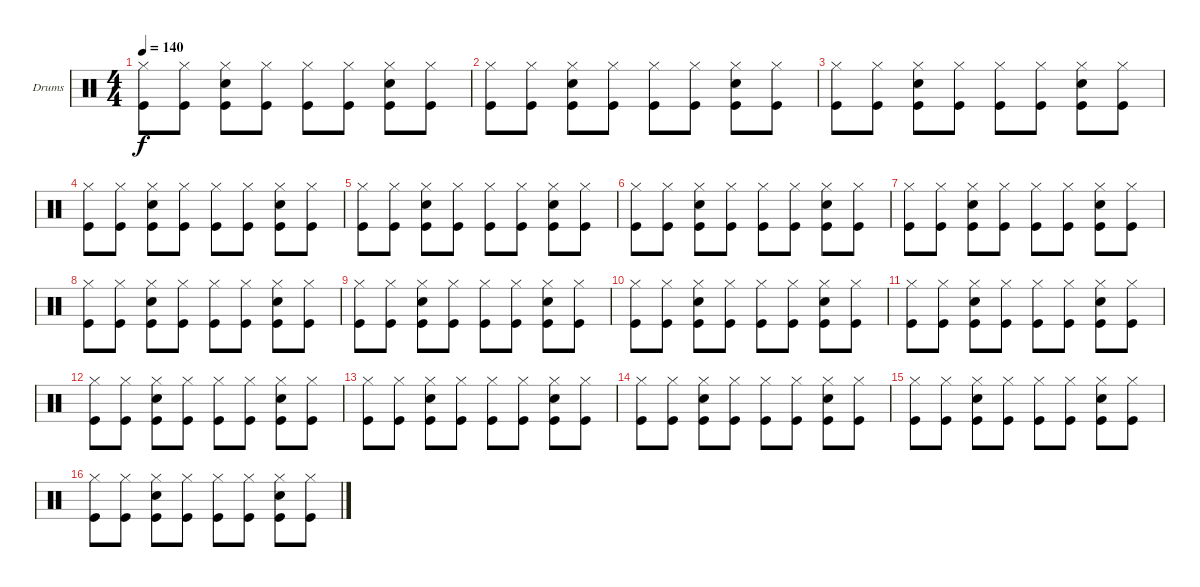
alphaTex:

\bracketExtendMode groupsimilarinstruments
\firstSystemTrackNameOrientation horizontal
\otherSystemsTrackNameOrientation horizontal
\track ("Peter Ulrich (Drums)" "Drums") {instrument percussion}
\staff {score}
\articulation defaults
\ts (4 4)
\tempo 140
\clef neutral
\ks c
("Hi-Hat (closed)" "Kick (hit)").8{dy f} ("Hi-Hat (closed)" "Kick (hit)").8 ("Hi-Hat (closed)" "Snare (hit) 2" "Kick (hit)").8 ("Hi-Hat (closed)" "Kick (hit)").8 ("Hi-Hat (closed)" "Kick (hit)").8 ("Hi-Hat (closed)" "Kick (hit)").8 ("Hi-Hat (closed)" "Snare (hit) 2" "Kick (hit)").8 ("Hi-Hat (closed)" "Kick (hit)").8 |
("Hi-Hat (closed)" "Kick (hit)").8 ("Hi-Hat (closed)" "Kick (hit)").8 ("Hi-Hat (closed)" "Snare (hit) 2" "Kick (hit)").8 ("Hi-Hat (closed)" "Kick (hit)").8 ("Hi-Hat (closed)" "Kick (hit)").8 ("Hi-Hat (closed)" "Kick (hit)").8 ("Hi-Hat (closed)" "Snare (hit) 2" "Kick (hit)").8 ("Hi-Hat (closed)" "Kick (hit)").8 |
("Hi-Hat (closed)" "Kick (hit)").8 ("Hi-Hat (closed)" "Kick (hit)").8 ("Hi-Hat (closed)" "Snare (hit) 2" "Kick (hit)").8 ("Hi-Hat (closed)" "Kick (hit)").8 ("Hi-Hat (closed)" "Kick (hit)").8 ("Hi-Hat (closed)" "Kick (hit)").8 ("Hi-Hat (closed)" "Snare (hit) 2" "Kick (hit)").8 ("Hi-Hat (closed)" "Kick (hit)").8 |
("Hi-Hat (closed)" "Kick (hit)").8 ("Hi-Hat (closed)" "Kick (hit)").8 ("Hi-Hat (closed)" "Snare (hit) 2" "Kick (hit)").8 ("Hi-Hat (closed)" "Kick (hit)").8 ("Hi-Hat (closed)" "Kick (hit)").8 ("Hi-Hat (closed)" "Kick (hit)").8 ("Hi-Hat (closed)" "Snare (hit) 2" "Kick (hit)").8 ("Hi-Hat (closed)" "Kick (hit)").8 |
("Hi-Hat (closed)" "Kick (hit)").8 ("Hi-Hat (closed)" "Kick (hit)").8 ("Hi-Hat (closed)" "Snare (hit) 2" "Kick (hit)").8 ("Hi-Hat (closed)" "Kick (hit)").8 ("Hi-Hat (closed)" "Kick (hit)").8 ("Hi-Hat (closed)" "Kick (hit)").8 ("Hi-Hat (closed)" "Snare (hit) 2" "Kick (hit)").8 ("Hi-Hat (closed)" "Kick (hit)").8 |
("Hi-Hat (closed)" "Kick (hit)").8 ("Hi-Hat (closed)" "Kick (hit)").8 ("Hi-Hat (closed)" "Snare (hit) 2" "Kick (hit)").8 ("Hi-Hat (closed)" "Kick (hit)").8 ("Hi-Hat (closed)" "Kick (hit)").8 ("Hi-Hat (closed)" "Kick (hit)").8 ("Hi-Hat (closed)" "Snare (hit) 2" "Kick (hit)").8 ("Hi-Hat (closed)" "Kick (hit)").8 |
("Hi-Hat (closed)" "Kick (hit)").8 ("Hi-Hat (closed)" "Kick (hit)").8 ("Hi-Hat (closed)" "Snare (hit) 2" "Kick (hit)").8 ("Hi-Hat (closed)" "Kick (hit)").8 ("Hi-Hat (closed)" "Kick (hit)").8 ("Hi-Hat (closed)" "Kick (hit)").8 ("Hi-Hat (closed)" "Snare (hit) 2" "Kick (hit)").8 ("Hi-Hat (closed)" "Kick (hit)").8 |
("Hi-Hat (closed)" "Kick (hit)").8 ("Hi-Hat (closed)" "Kick (hit)").8 ("Hi-Hat (closed)" "Snare (hit) 2" "Kick (hit)").8 ("Hi-Hat (closed)" "Kick (hit)").8 ("Hi-Hat (closed)" "Kick (hit)").8 ("Hi-Hat (closed)" "Kick (hit)").8 ("Hi-Hat (closed)" "Snare (hit) 2" "Kick (hit)").8 ("Hi-Hat (closed)" "Kick (hit)").8 |
("Hi-Hat (closed)" "Kick (hit)").8 ("Hi-Hat (closed)" "Kick (hit)").8 ("Hi-Hat (closed)" "Snare (hit) 2" "Kick (hit)").8 ("Hi-Hat (closed)" "Kick (hit)").8 ("Hi-Hat (closed)" "Kick (hit)").8 ("Hi-Hat (closed)" "Kick (hit)").8 ("Hi-Hat (closed)" "Snare (hit) 2" "Kick (hit)").8 ("Hi-Hat (closed)" "Kick (hit)").8 |
("Hi-Hat (closed)" "Kick (hit)").8 ("Hi-Hat (closed)" "Kick (hit)").8 ("Hi-Hat (closed)" "Snare (hit) 2" "Kick (hit)").8 ("Hi-Hat (closed)" "Kick (hit)").8 ("Hi-Hat (closed)" "Kick (hit)").8 ("Hi-Hat (closed)" "Kick (hit)").8 ("Hi-Hat (closed)" "Snare (hit) 2" "Kick (hit)").8 ("Hi-Hat (closed)" "Kick (hit)").8 |
("Hi-Hat (closed)" "Kick (hit)").8 ("Hi-Hat (closed)" "Kick (hit)").8 ("Hi-Hat (closed)" "Snare (hit) 2" "Kick (hit)").8 ("Hi-Hat (closed)" "Kick (hit)").8 ("Hi-Hat (closed)" "Kick (hit)").8 ("Hi-Hat (closed)" "Kick (hit)").8 ("Hi-Hat (closed)" "Snare (hit) 2" "Kick (hit)").8 ("Hi-Hat (closed)" "Kick (hit)").8 |
("Hi-Hat (closed)" "Kick (hit)").8 ("Hi-Hat (closed)" "Kick (hit)").8 ("Hi-Hat (closed)" "Snare (hit) 2" "Kick (hit)").8 ("Hi-Hat (closed)" "Kick (hit)").8 ("Hi-Hat (closed)" "Kick (hit)").8 ("Hi-Hat (closed)" "Kick (hit)").8 ("Hi-Hat (closed)" "Snare (hit) 2" "Kick (hit)").8 ("Hi-Hat (closed)" "Kick (hit)").8 |
("Hi-Hat (closed)" "Kick (hit)").8 ("Hi-Hat (closed)" "Kick (hit)").8 ("Hi-Hat (closed)" "Snare (hit) 2" "Kick (hit)").8 ("Hi-Hat (closed)" "Kick (hit)").8 ("Hi-Hat (closed)" "Kick (hit)").8 ("Hi-Hat (closed)" "Kick (hit)").8 ("Hi-Hat (closed)" "Snare (hit) 2" "Kick (hit)").8 ("Hi-Hat (closed)" "Kick (hit)").8 |
("Hi-Hat (closed)" "Kick (hit)").8 ("Hi-Hat (closed)" "Kick (hit)").8 ("Hi-Hat (closed)" "Snare (hit) 2" "Kick (hit)").8 ("Hi-Hat (closed)" "Kick (hit)").8 ("Hi-Hat (closed)" "Kick (hit)").8 ("Hi-Hat (closed)" "Kick (hit)").8 ("Hi-Hat (closed)" "Snare (hit) 2" "Kick (hit)").8 ("Hi-Hat (closed)" "Kick (hit)").8 |
("Hi-Hat (closed)" "Kick (hit)").8 ("Hi-Hat (closed)" "Kick (hit)").8 ("Hi-Hat (closed)" "Snare (hit) 2" "Kick (hit)").8 ("Hi-Hat (closed)" "Kick (hit)").8 ("Hi-Hat (closed)" "Kick (hit)").8 ("Hi-Hat (closed)" "Kick (hit)").8 ("Hi-Hat (closed)" "Snare (hit) 2" "Kick (hit)").8 ("Hi-Hat (closed)" "Kick (hit)").8 |
("Hi-Hat (closed)" "Kick (hit)").8 ("Hi-Hat (closed)" "Kick (hit)").8 ("Hi-Hat (closed)" "Snare (hit) 2" "Kick (hit)").8 ("Hi-Hat (closed)" "Kick (hit)").8 ("Hi-Hat (closed)" "Kick (hit)").8 ("Hi-Hat (closed)" "Kick (hit)").8 ("Hi-Hat (closed)" "Snare (hit) 2" "Kick (hit)").8 ("Hi-Hat (closed)" "Kick (hit)").8
